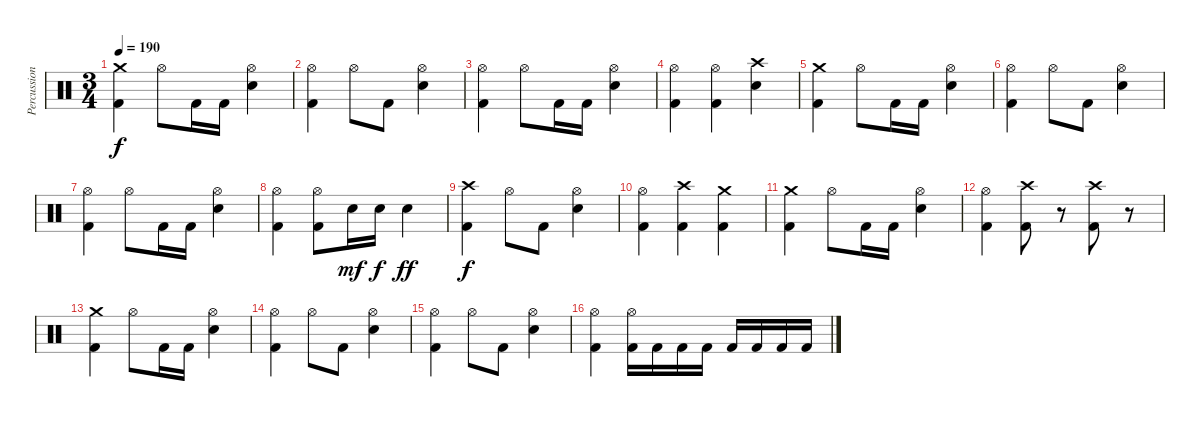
\track ("Percussion" "Percussion") {instrument percussion}
\staff {score}
\articulation defaults
\ts (3 4)
\tempo 190
\tempo 250
\tempo 190
\clef neutral
\ks c
("Crash medium (hit)" "Kick (hit) 2").4{dy f} "Hi-Hat (open)".8 "Kick (hit) 2".16 "Kick (hit) 2".16 ("Hi-Hat (open)" "Electric Snare (hit)").4 |
("Hi-Hat (open)" "Kick (hit) 2").4 "Hi-Hat (open)".8 "Kick (hit) 2".8 ("Hi-Hat (open)" "Electric Snare (hit)").4 |
("Hi-Hat (open)" "Kick (hit) 2").4 "Hi-Hat (open)".8 "Kick (hit) 2".16 "Kick (hit) 2".16 ("Hi-Hat (open)" "Electric Snare (hit)").4 |
("Hi-Hat (open)" "Kick (hit) 2").4 ("Hi-Hat (open)" "Kick (hit) 2").4 ("Crash high (hit)" "Electric Snare (hit)").4 |
("Crash medium (hit)" "Kick (hit) 2").4 "Hi-Hat (open)".8 "Kick (hit) 2".16 "Kick (hit) 2".16 ("Hi-Hat (open)" "Electric Snare (hit)").4 |
("Hi-Hat (open)" "Kick (hit) 2").4 "Hi-Hat (open)".8 "Kick (hit) 2".8 ("Hi-Hat (open)" "Electric Snare (hit)").4 |
("Hi-Hat (open)" "Kick (hit) 2").4 "Hi-Hat (open)".8 "Kick (hit) 2".16 "Kick (hit) 2".16 ("Hi-Hat (open)" "Electric Snare (hit)").4 |
("Hi-Hat (open)" "Kick (hit) 2").4 ("Hi-Hat (open)" "Kick (hit) 2").8 "Electric Snare (hit)".16{dy mf} "Electric Snare (hit)".16{dy f} "Electric Snare (hit)".4{dy ff} |
("Crash high (hit)" "Kick (hit) 2").4{dy f} "Hi-Hat (open)".8 "Kick (hit) 2".8 ("Hi-Hat (open)" "Electric Snare (hit)").4 |
("Hi-Hat (open)" "Kick (hit) 2").4 ("Crash high (hit)" "Kick (hit) 2").4 ("Crash medium (hit)" "Kick (hit) 2").4 |
("Crash medium (hit)" "Kick (hit) 2").4 "Hi-Hat (open)".8 "Kick (hit) 2".16 "Kick (hit) 2".16 ("Hi-Hat (open)" "Electric Snare (hit)").4 |
("Hi-Hat (open)" "Kick (hit) 2").4 ("Crash high (hit)" "Kick (hit) 2").8 r.8{volume 0} ("Crash high (hit)" "Kick (hit) 2").8{volume 13} r.8{volume 0} |
("Crash medium (hit)" "Kick (hit) 2").4{volume 13} "Hi-Hat (open)".8 "Kick (hit) 2".16 "Kick (hit) 2".16 ("Hi-Hat (open)" "Electric Snare (hit)").4 |
("Hi-Hat (open)" "Kick (hit) 2").4 "Hi-Hat (open)".8 "Kick (hit) 2".8 ("Hi-Hat (open)" "Electric Snare (hit)").4 |
("Hi-Hat (open)" "Kick (hit) 2").4 "Hi-Hat (open)".8 "Kick (hit) 2".8 ("Hi-Hat (open)" "Electric Snare (hit)").4 |
("Hi-Hat (open)" "Kick (hit) 2").4 ("Hi-Hat (open)" "Kick (hit) 2").16 "Kick (hit) 2".16 "Kick (hit) 2".16 "Kick (hit) 2".16 "Kick (hit) 2".16 "Kick (hit) 2".16 "Kick (hit) 2".16 "Kick (hit) 2".16
